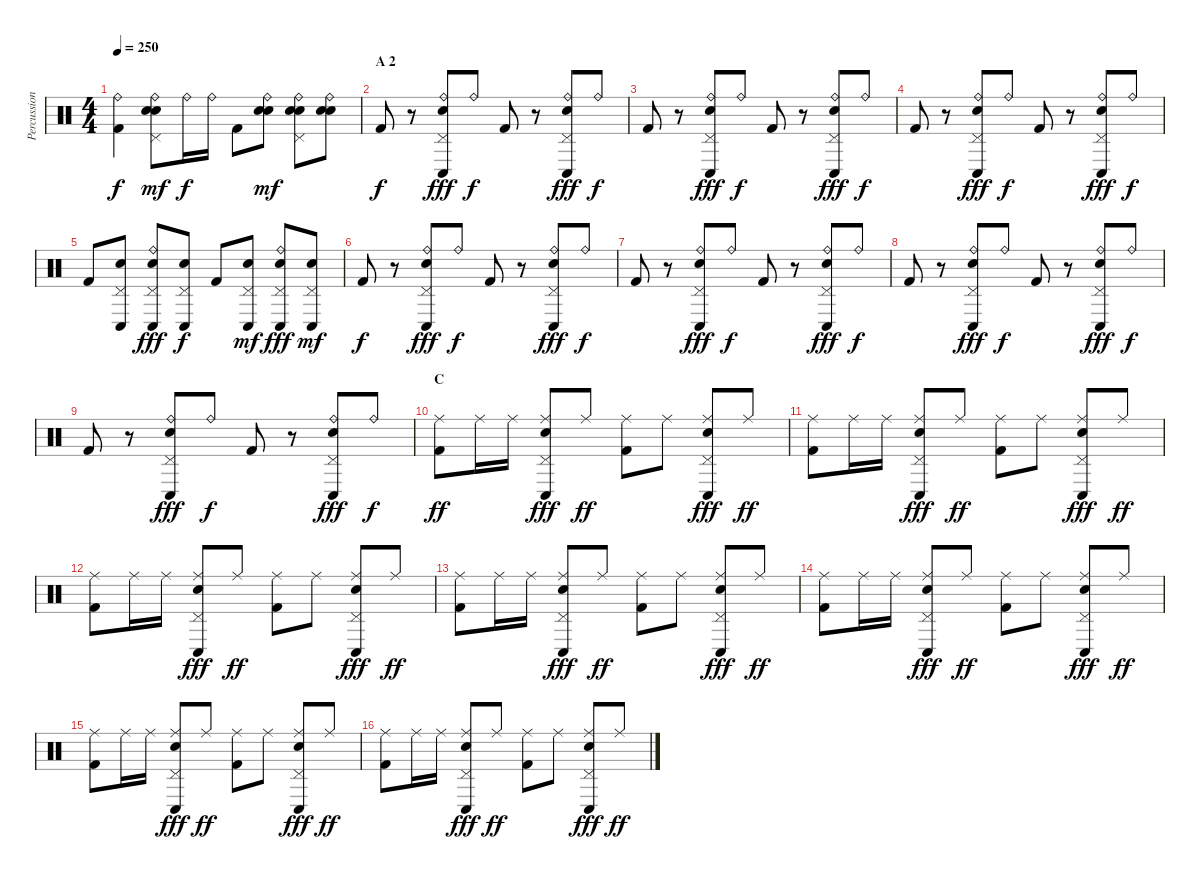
\track ("Percussion" "Percussion") {instrument percussion}
\staff {score}
\articulation defaults
\ts (4 4)
\tempo 250
\clef neutral
\ks c
("Ride (bell)" "Kick (hit) 2").4{dy f} ("Ride (bell)" "Pedal Hi-Hat (hit)" "Snare (hit) 2" "Electric Snare (hit)").8{dy mf} "Ride (bell)".16{dy f} "Ride (bell)".16 "Kick (hit) 2".8 ("Ride (bell)" "Snare (hit) 2" "Electric Snare (hit)").8{dy mf} ("Ride (bell)" "Pedal Hi-Hat (hit)" "Snare (hit) 2" "Electric Snare (hit)").8 ("Ride (bell)" "Snare (hit) 2" "Electric Snare (hit)").8 |
\section ("" "A 2")
"Kick (hit) 2".8{dy f} r.8 ("Ride (bell)" "Pedal Hi-Hat (hit)" "Conga low (hit)" "Electric Snare (hit)").8{dy fff} "Ride (bell)".8{dy f} "Kick (hit) 2".8 r.8 ("Ride (bell)" "Pedal Hi-Hat (hit)" "Conga low (hit)" "Electric Snare (hit)").8{dy fff} "Ride (bell)".8{dy f} |
"Kick (hit) 2".8 r.8 ("Ride (bell)" "Pedal Hi-Hat (hit)" "Conga low (hit)" "Electric Snare (hit)").8{dy fff} "Ride (bell)".8{dy f} "Kick (hit) 2".8 r.8 ("Ride (bell)" "Pedal Hi-Hat (hit)" "Conga low (hit)" "Electric Snare (hit)").8{dy fff} "Ride (bell)".8{dy f} |
"Kick (hit) 2".8 r.8 ("Ride (bell)" "Pedal Hi-Hat (hit)" "Conga low (hit)" "Electric Snare (hit)").8{dy fff} "Ride (bell)".8{dy f} "Kick (hit) 2".8 r.8 ("Ride (bell)" "Pedal Hi-Hat (hit)" "Conga low (hit)" "Electric Snare (hit)").8{dy fff} "Ride (bell)".8{dy f} |
"Kick (hit) 2".8 ("Pedal Hi-Hat (hit)" "Conga low (hit)" "Electric Snare (hit)").8 ("Ride (bell)" "Pedal Hi-Hat (hit)" "Conga low (hit)" "Electric Snare (hit)").8{dy fff} ("Pedal Hi-Hat (hit)" "Conga low (hit)" "Electric Snare (hit)").8{dy f} "Kick (hit) 2".8 ("Pedal Hi-Hat (hit)" "Conga low (hit)" "Electric Snare (hit)").8{dy mf} ("Ride (bell)" "Pedal Hi-Hat (hit)" "Conga low (hit)" "Electric Snare (hit)").8{dy fff} ("Pedal Hi-Hat (hit)" "Conga low (hit)" "Electric Snare (hit)").8{dy mf} |
"Kick (hit) 2".8{dy f} r.8 ("Ride (bell)" "Pedal Hi-Hat (hit)" "Conga low (hit)" "Electric Snare (hit)").8{dy fff} "Ride (bell)".8{dy f} "Kick (hit) 2".8 r.8 ("Ride (bell)" "Pedal Hi-Hat (hit)" "Conga low (hit)" "Electric Snare (hit)").8{dy fff} "Ride (bell)".8{dy f} |
"Kick (hit) 2".8 r.8 ("Ride (bell)" "Pedal Hi-Hat (hit)" "Conga low (hit)" "Electric Snare (hit)").8{dy fff} "Ride (bell)".8{dy f} "Kick (hit) 2".8 r.8 ("Ride (bell)" "Pedal Hi-Hat (hit)" "Conga low (hit)" "Electric Snare (hit)").8{dy fff} "Ride (bell)".8{dy f} |
"Kick (hit) 2".8 r.8 ("Ride (bell)" "Pedal Hi-Hat (hit)" "Conga low (hit)" "Electric Snare (hit)").8{dy fff} "Ride (bell)".8{dy f} "Kick (hit) 2".8 r.8 ("Ride (bell)" "Pedal Hi-Hat (hit)" "Conga low (hit)" "Electric Snare (hit)").8{dy fff} "Ride (bell)".8{dy f} |
"Kick (hit) 2".8 r.8 ("Ride (bell)" "Pedal Hi-Hat (hit)" "Conga low (hit)" "Electric Snare (hit)").8{dy fff} "Ride (bell)".8{dy f} "Kick (hit) 2".8 r.8 ("Ride (bell)" "Pedal Hi-Hat (hit)" "Conga low (hit)" "Electric Snare (hit)").8{dy fff} "Ride (bell)".8{dy f} |
\section ("" "C")
("Ride (middle)" "Kick (hit) 2").8{dy ff} "Ride (middle)".16 "Ride (middle)".16 ("Ride (middle)" "Pedal Hi-Hat (hit)" "Conga low (hit)" "Electric Snare (hit)").8{dy fff} "Ride (middle)".8{dy ff} ("Ride (middle)" "Kick (hit) 2").8 "Ride (middle)".8 ("Ride (middle)" "Pedal Hi-Hat (hit)" "Conga low (hit)" "Electric Snare (hit)").8{dy fff} "Ride (middle)".8{dy ff} |
("Ride (middle)" "Kick (hit) 2").8 "Ride (middle)".16 "Ride (middle)".16 ("Ride (middle)" "Pedal Hi-Hat (hit)" "Conga low (hit)" "Electric Snare (hit)").8{dy fff} "Ride (middle)".8{dy ff} ("Ride (middle)" "Kick (hit) 2").8 "Ride (middle)".8 ("Ride (middle)" "Pedal Hi-Hat (hit)" "Conga low (hit)" "Electric Snare (hit)").8{dy fff} "Ride (middle)".8{dy ff} |
("Ride (middle)" "Kick (hit) 2").8 "Ride (middle)".16 "Ride (middle)".16 ("Ride (middle)" "Pedal Hi-Hat (hit)" "Conga low (hit)" "Electric Snare (hit)").8{dy fff} "Ride (middle)".8{dy ff} ("Ride (middle)" "Kick (hit) 2").8 "Ride (middle)".8 ("Ride (middle)" "Pedal Hi-Hat (hit)" "Conga low (hit)" "Electric Snare (hit)").8{dy fff} "Ride (middle)".8{dy ff} |
("Ride (middle)" "Kick (hit) 2").8 "Ride (middle)".16 "Ride (middle)".16 ("Ride (middle)" "Pedal Hi-Hat (hit)" "Conga low (hit)" "Electric Snare (hit)").8{dy fff} "Ride (middle)".8{dy ff} ("Ride (middle)" "Kick (hit) 2").8 "Ride (middle)".8 ("Ride (middle)" "Pedal Hi-Hat (hit)" "Conga low (hit)" "Electric Snare (hit)").8{dy fff} "Ride (middle)".8{dy ff} |
("Ride (middle)" "Kick (hit) 2").8 "Ride (middle)".16 "Ride (middle)".16 ("Ride (middle)" "Pedal Hi-Hat (hit)" "Conga low (hit)" "Electric Snare (hit)").8{dy fff} "Ride (middle)".8{dy ff} ("Ride (middle)" "Kick (hit) 2").8 "Ride (middle)".8 ("Ride (middle)" "Pedal Hi-Hat (hit)" "Conga low (hit)" "Electric Snare (hit)").8{dy fff} "Ride (middle)".8{dy ff} |
("Ride (middle)" "Kick (hit) 2").8 "Ride (middle)".16 "Ride (middle)".16 ("Ride (middle)" "Pedal Hi-Hat (hit)" "Conga low (hit)" "Electric Snare (hit)").8{dy fff} "Ride (middle)".8{dy ff} ("Ride (middle)" "Kick (hit) 2").8 "Ride (middle)".8 ("Ride (middle)" "Pedal Hi-Hat (hit)" "Conga low (hit)" "Electric Snare (hit)").8{dy fff} "Ride (middle)".8{dy ff} |
("Ride (middle)" "Kick (hit) 2").8 "Ride (middle)".16 "Ride (middle)".16 ("Ride (middle)" "Pedal Hi-Hat (hit)" "Conga low (hit)" "Electric Snare (hit)").8{dy fff} "Ride (middle)".8{dy ff} ("Ride (middle)" "Kick (hit) 2").8 "Ride (middle)".8 ("Ride (middle)" "Pedal Hi-Hat (hit)" "Conga low (hit)" "Electric Snare (hit)").8{dy fff} "Ride (middle)".8{dy ff}
